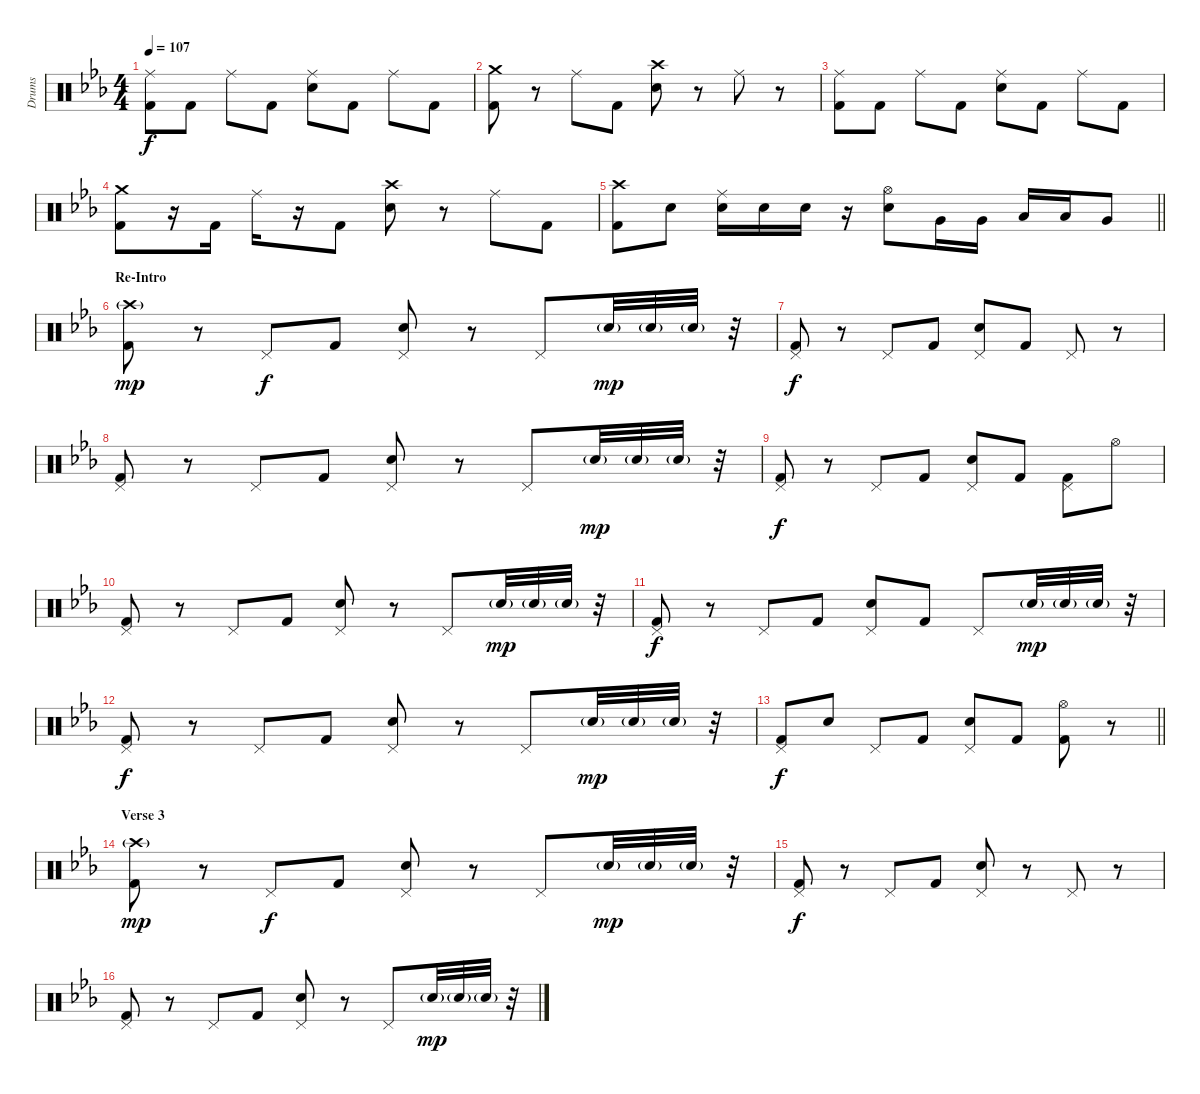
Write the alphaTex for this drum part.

\track ("Drums" "Drums") {instrument percussion}
\staff {score}
\articulation defaults
\ts (4 4)
\tempo 107
\clef neutral
\ks cminor
("Ride (middle)" "Kick (hit) 2").8{dy f} "Kick (hit) 2".8 "Ride (middle)".8 "Kick (hit) 2".8 ("Ride (middle)" "Electric Snare (hit)").8 "Kick (hit) 2".8 "Ride (middle)".8 "Kick (hit) 2".8 |
("Crash medium (hit)" "Kick (hit) 2").8 r.8 "Ride (middle)".8 "Kick (hit) 2".8 ("Crash high (hit)" "Electric Snare (hit)").8 r.8 "Ride (middle)".8 r.8 |
("Ride (middle)" "Kick (hit) 2").8 "Kick (hit) 2".8 "Ride (middle)".8 "Kick (hit) 2".8 ("Ride (middle)" "Electric Snare (hit)").8 "Kick (hit) 2".8 "Ride (middle)".8 "Kick (hit) 2".8 |
("Crash medium (hit)" "Kick (hit) 2").8 r.16 "Kick (hit) 2".16 "Ride (middle)".16 r.16 "Kick (hit) 2".8 ("Crash high (hit)" "Electric Snare (hit)").8 r.8 "Ride (middle)".8 "Kick (hit) 2".8 |
\barLineRight lightlight
("Crash high (hit)" "Kick (hit) 2").8 "Electric Snare (hit)".8 ("Ride (middle)" "Electric Snare (hit)").16 "Electric Snare (hit)".16 "Electric Snare (hit)".16 r.16 ("Hi-Hat (open)" "Electric Snare (hit)").8 "Very Low Tom (hit)".16 "Very Low Tom (hit)".16 "Low Tom (hit)".16 "Low Tom (hit)".16 "Very Low Tom (hit)".8 |
\section ("" "Re-Intro")
("Crash high (hit)"{g} "Kick (hit) 2").8{dy mp} r.8 "Pedal Hi-Hat (hit)".8{dy f} "Kick (hit) 2".8 ("Pedal Hi-Hat (hit)" "Electric Snare (hit)").8 r.8 "Pedal Hi-Hat (hit)".8 "Electric Snare (hit)"{g}.32{dy mp} "Electric Snare (hit)"{g}.32 "Electric Snare (hit)"{g}.32 r.32 |
("Pedal Hi-Hat (hit)" "Kick (hit) 2").8{dy f} r.8 "Pedal Hi-Hat (hit)".8 "Kick (hit) 2".8 ("Pedal Hi-Hat (hit)" "Electric Snare (hit)").8 "Kick (hit) 2".8 "Pedal Hi-Hat (hit)".8 r.8 |
("Pedal Hi-Hat (hit)" "Kick (hit) 2").8 r.8 "Pedal Hi-Hat (hit)".8 "Kick (hit) 2".8 ("Pedal Hi-Hat (hit)" "Electric Snare (hit)").8 r.8 "Pedal Hi-Hat (hit)".8 "Electric Snare (hit)"{g}.32{dy mp} "Electric Snare (hit)"{g}.32 "Electric Snare (hit)"{g}.32 r.32 |
("Pedal Hi-Hat (hit)" "Kick (hit) 2").8{dy f} r.8 "Pedal Hi-Hat (hit)".8 "Kick (hit) 2".8 ("Pedal Hi-Hat (hit)" "Electric Snare (hit)").8 "Kick (hit) 2".8 ("Pedal Hi-Hat (hit)" "Kick (hit) 2").8 "Hi-Hat (open)".8 |
("Pedal Hi-Hat (hit)" "Kick (hit) 2").8 r.8 "Pedal Hi-Hat (hit)".8 "Kick (hit) 2".8 ("Pedal Hi-Hat (hit)" "Electric Snare (hit)").8 r.8 "Pedal Hi-Hat (hit)".8 "Electric Snare (hit)"{g}.32{dy mp} "Electric Snare (hit)"{g}.32 "Electric Snare (hit)"{g}.32 r.32 |
("Pedal Hi-Hat (hit)" "Kick (hit) 2").8{dy f} r.8 "Pedal Hi-Hat (hit)".8 "Kick (hit) 2".8 ("Pedal Hi-Hat (hit)" "Electric Snare (hit)").8 "Kick (hit) 2".8 "Pedal Hi-Hat (hit)".8 "Electric Snare (hit)"{g}.32{dy mp} "Electric Snare (hit)"{g}.32 "Electric Snare (hit)"{g}.32 r.32 |
("Pedal Hi-Hat (hit)" "Kick (hit) 2").8{dy f} r.8 "Pedal Hi-Hat (hit)".8 "Kick (hit) 2".8 ("Pedal Hi-Hat (hit)" "Electric Snare (hit)").8 r.8 "Pedal Hi-Hat (hit)".8 "Electric Snare (hit)"{g}.32{dy mp} "Electric Snare (hit)"{g}.32 "Electric Snare (hit)"{g}.32 r.32 |
\barLineRight lightlight
("Pedal Hi-Hat (hit)" "Kick (hit) 2").8{dy f} "Electric Snare (hit)".8 "Pedal Hi-Hat (hit)".8 "Kick (hit) 2".8 ("Pedal Hi-Hat (hit)" "Electric Snare (hit)").8 "Kick (hit) 2".8 ("Hi-Hat (open)" "Kick (hit) 2").8 r.8 |
\section ("" "Verse 3")
("Crash high (hit)"{g} "Kick (hit) 2").8{dy mp} r.8 "Pedal Hi-Hat (hit)".8{dy f} "Kick (hit) 2".8 ("Pedal Hi-Hat (hit)" "Electric Snare (hit)").8 r.8 "Pedal Hi-Hat (hit)".8 "Electric Snare (hit)"{g}.32{dy mp} "Electric Snare (hit)"{g}.32 "Electric Snare (hit)"{g}.32 r.32 |
("Pedal Hi-Hat (hit)" "Kick (hit) 2").8{dy f} r.8 "Pedal Hi-Hat (hit)".8 "Kick (hit) 2".8 ("Pedal Hi-Hat (hit)" "Electric Snare (hit)").8 r.8 "Pedal Hi-Hat (hit)".8 r.8 |
("Pedal Hi-Hat (hit)" "Kick (hit) 2").8 r.8 "Pedal Hi-Hat (hit)".8 "Kick (hit) 2".8 ("Pedal Hi-Hat (hit)" "Electric Snare (hit)").8 r.8 "Pedal Hi-Hat (hit)".8 "Electric Snare (hit)"{g}.32{dy mp} "Electric Snare (hit)"{g}.32 "Electric Snare (hit)"{g}.32 r.32
